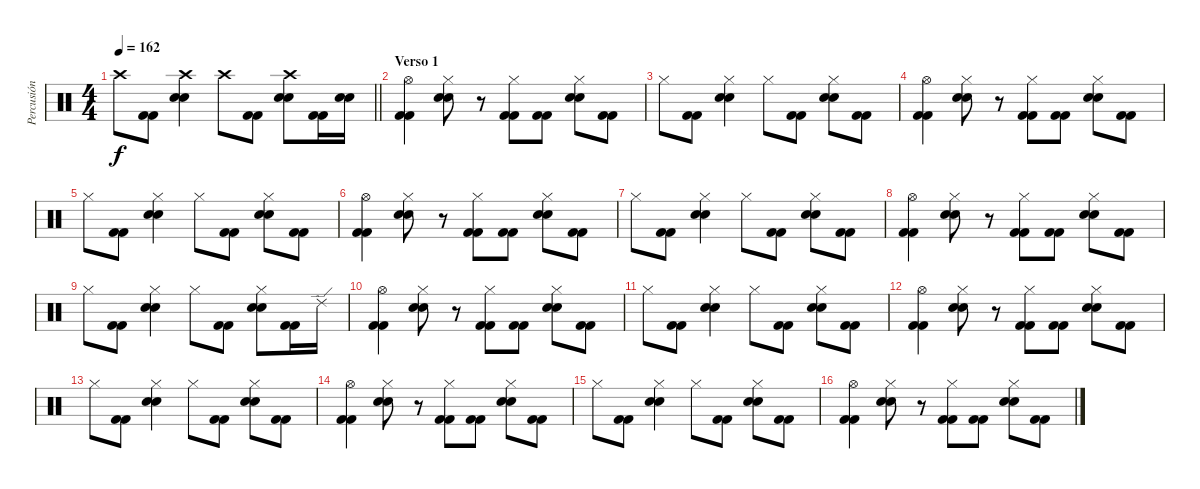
\track ("Percusión" "Percusión") {instrument percussion}
\staff {score}
\articulation defaults
\ts (4 4)
\tempo 162
\clef neutral
\barLineRight lightlight
\ks c "Crash high (hit)".8{dy f}
("Kick (hit) 2" "Kick (hit) 2").8 ("Crash high (hit)" "Electric Snare (hit)" "Electric Snare (hit)").4 "Crash high (hit)".8 ("Kick (hit) 2" "Kick (hit) 2").8 ("Crash high (hit)" "Electric Snare (hit)" "Electric Snare (hit)").8 ("Kick (hit) 2" "Kick (hit) 2").16 ("Electric Snare (hit)" "Electric Snare (hit)").16 |
\section ("" "Verso 1")
("Hi-Hat (open)" "Kick (hit) 2" "Kick (hit) 2").4 ("Hi-Hat (closed)" "Electric Snare (hit)" "Electric Snare (hit)").8 r.8 ("Hi-Hat (closed)" "Kick (hit) 2" "Kick (hit) 2").8 ("Kick (hit) 2" "Kick (hit) 2").8 ("Hi-Hat (closed)" "Electric Snare (hit)" "Electric Snare (hit)").8 ("Kick (hit) 2" "Kick (hit) 2").8 |
"Hi-Hat (closed)".8 ("Kick (hit) 2" "Kick (hit) 2").8 ("Hi-Hat (closed)" "Electric Snare (hit)" "Electric Snare (hit)").4 "Hi-Hat (closed)".8 ("Kick (hit) 2" "Kick (hit) 2").8 ("Hi-Hat (closed)" "Electric Snare (hit)" "Electric Snare (hit)").8 ("Kick (hit) 2" "Kick (hit) 2").8 |
("Hi-Hat (open)" "Kick (hit) 2" "Kick (hit) 2").4 ("Hi-Hat (closed)" "Electric Snare (hit)" "Electric Snare (hit)").8 r.8 ("Hi-Hat (closed)" "Kick (hit) 2" "Kick (hit) 2").8 ("Kick (hit) 2" "Kick (hit) 2").8 ("Hi-Hat (closed)" "Electric Snare (hit)" "Electric Snare (hit)").8 ("Kick (hit) 2" "Kick (hit) 2").8 |
"Hi-Hat (closed)".8 ("Kick (hit) 2" "Kick (hit) 2").8 ("Hi-Hat (closed)" "Electric Snare (hit)" "Electric Snare (hit)").4 "Hi-Hat (closed)".8 ("Kick (hit) 2" "Kick (hit) 2").8 ("Hi-Hat (closed)" "Electric Snare (hit)" "Electric Snare (hit)").8 ("Kick (hit) 2" "Kick (hit) 2").8 |
("Hi-Hat (open)" "Kick (hit) 2" "Kick (hit) 2").4 ("Hi-Hat (closed)" "Electric Snare (hit)" "Electric Snare (hit)").8 r.8 ("Hi-Hat (closed)" "Kick (hit) 2" "Kick (hit) 2").8 ("Kick (hit) 2" "Kick (hit) 2").8 ("Hi-Hat (closed)" "Electric Snare (hit)" "Electric Snare (hit)").8 ("Kick (hit) 2" "Kick (hit) 2").8 |
"Hi-Hat (closed)".8 ("Kick (hit) 2" "Kick (hit) 2").8 ("Hi-Hat (closed)" "Electric Snare (hit)" "Electric Snare (hit)").4 "Hi-Hat (closed)".8 ("Kick (hit) 2" "Kick (hit) 2").8 ("Hi-Hat (closed)" "Electric Snare (hit)" "Electric Snare (hit)").8 ("Kick (hit) 2" "Kick (hit) 2").8 |
("Hi-Hat (open)" "Kick (hit) 2" "Kick (hit) 2").4 ("Hi-Hat (closed)" "Electric Snare (hit)" "Electric Snare (hit)").8 r.8 ("Hi-Hat (closed)" "Kick (hit) 2" "Kick (hit) 2").8 ("Kick (hit) 2" "Kick (hit) 2").8 ("Hi-Hat (closed)" "Electric Snare (hit)" "Electric Snare (hit)").8 ("Kick (hit) 2" "Kick (hit) 2").8 |
"Hi-Hat (closed)".8 ("Kick (hit) 2" "Kick (hit) 2").8 ("Hi-Hat (closed)" "Electric Snare (hit)" "Electric Snare (hit)").4 "Hi-Hat (closed)".8 ("Kick (hit) 2" "Kick (hit) 2").8 ("Hi-Hat (closed)" "Electric Snare (hit)" "Electric Snare (hit)").8 ("Kick (hit) 2" "Kick (hit) 2").16 "Ride (edge) 2".16 |
("Hi-Hat (open)" "Kick (hit) 2" "Kick (hit) 2").4 ("Hi-Hat (closed)" "Electric Snare (hit)" "Electric Snare (hit)").8 r.8 ("Hi-Hat (closed)" "Kick (hit) 2" "Kick (hit) 2").8 ("Kick (hit) 2" "Kick (hit) 2").8 ("Hi-Hat (closed)" "Electric Snare (hit)" "Electric Snare (hit)").8 ("Kick (hit) 2" "Kick (hit) 2").8 |
"Hi-Hat (closed)".8 ("Kick (hit) 2" "Kick (hit) 2").8 ("Hi-Hat (closed)" "Electric Snare (hit)" "Electric Snare (hit)").4 "Hi-Hat (closed)".8 ("Kick (hit) 2" "Kick (hit) 2").8 ("Hi-Hat (closed)" "Electric Snare (hit)" "Electric Snare (hit)").8 ("Kick (hit) 2" "Kick (hit) 2").8 |
("Hi-Hat (open)" "Kick (hit) 2" "Kick (hit) 2").4 ("Hi-Hat (closed)" "Electric Snare (hit)" "Electric Snare (hit)").8 r.8 ("Hi-Hat (closed)" "Kick (hit) 2" "Kick (hit) 2").8 ("Kick (hit) 2" "Kick (hit) 2").8 ("Hi-Hat (closed)" "Electric Snare (hit)" "Electric Snare (hit)").8 ("Kick (hit) 2" "Kick (hit) 2").8 |
"Hi-Hat (closed)".8 ("Kick (hit) 2" "Kick (hit) 2").8 ("Hi-Hat (closed)" "Electric Snare (hit)" "Electric Snare (hit)").4 "Hi-Hat (closed)".8 ("Kick (hit) 2" "Kick (hit) 2").8 ("Hi-Hat (closed)" "Electric Snare (hit)" "Electric Snare (hit)").8 ("Kick (hit) 2" "Kick (hit) 2").8 |
("Hi-Hat (open)" "Kick (hit) 2" "Kick (hit) 2").4 ("Hi-Hat (closed)" "Electric Snare (hit)" "Electric Snare (hit)").8 r.8 ("Hi-Hat (closed)" "Kick (hit) 2" "Kick (hit) 2").8 ("Kick (hit) 2" "Kick (hit) 2").8 ("Hi-Hat (closed)" "Electric Snare (hit)" "Electric Snare (hit)").8 ("Kick (hit) 2" "Kick (hit) 2").8 |
"Hi-Hat (closed)".8 ("Kick (hit) 2" "Kick (hit) 2").8 ("Hi-Hat (closed)" "Electric Snare (hit)" "Electric Snare (hit)").4 "Hi-Hat (closed)".8 ("Kick (hit) 2" "Kick (hit) 2").8 ("Hi-Hat (closed)" "Electric Snare (hit)" "Electric Snare (hit)").8 ("Kick (hit) 2" "Kick (hit) 2").8 |
("Hi-Hat (open)" "Kick (hit) 2" "Kick (hit) 2").4 ("Hi-Hat (closed)" "Electric Snare (hit)" "Electric Snare (hit)").8 r.8 ("Hi-Hat (closed)" "Kick (hit) 2" "Kick (hit) 2").8 ("Kick (hit) 2" "Kick (hit) 2").8 ("Hi-Hat (closed)" "Electric Snare (hit)" "Electric Snare (hit)").8 ("Kick (hit) 2" "Kick (hit) 2").8
